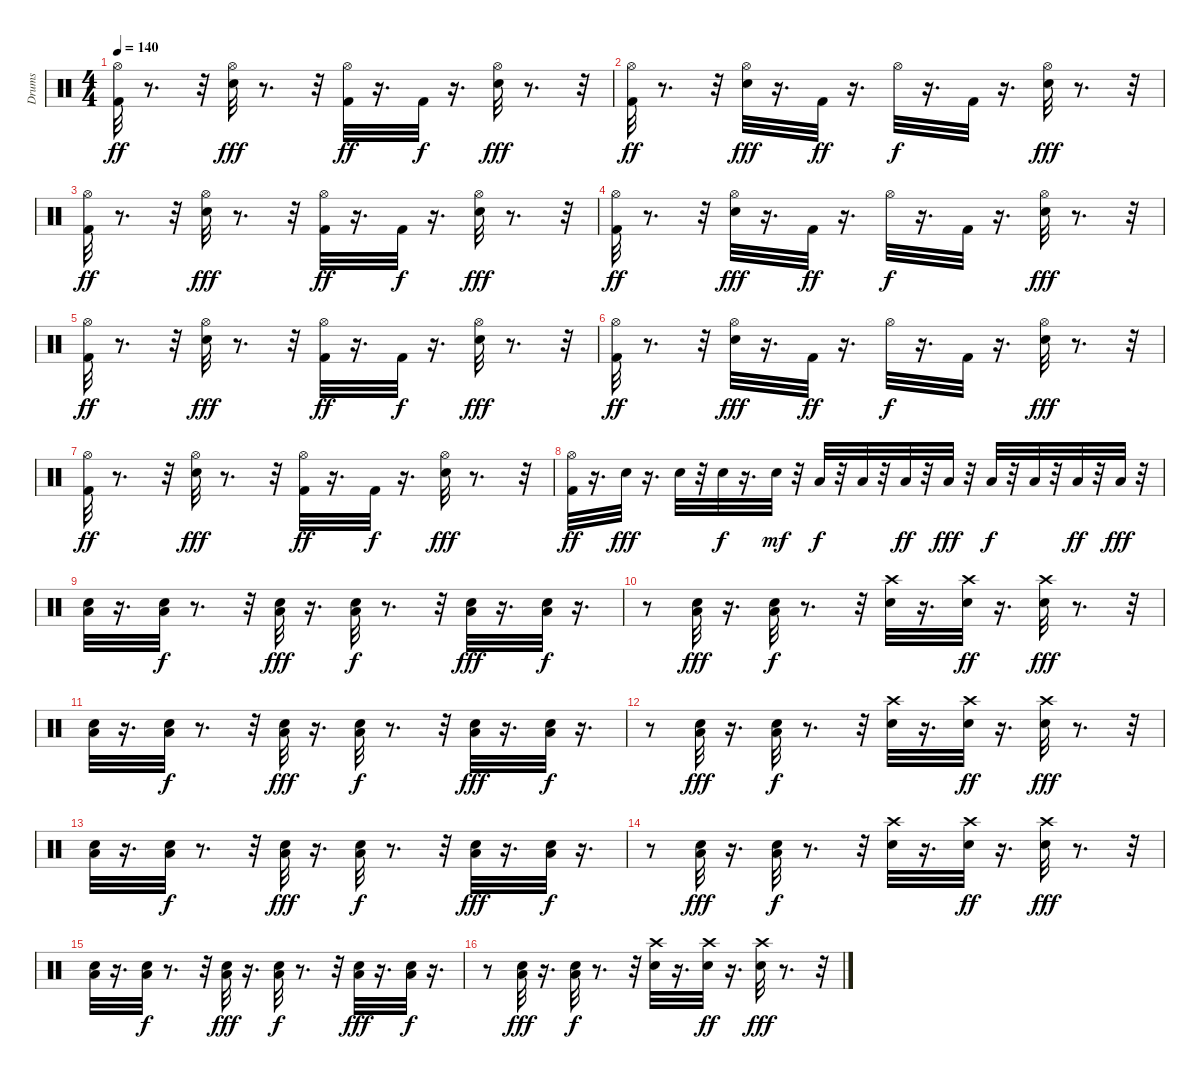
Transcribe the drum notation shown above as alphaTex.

\track ("Drums" "Drums") {instrument percussion}
\staff {score}
\articulation defaults
\ts (4 4)
\tempo 140
\clef neutral
\ks c
("Kick (hit) 2" "Hi-Hat (open)").32{dy ff} r.8{d} r.32 ("Snare (hit) 2" "Hi-Hat (open)").32{dy fff} r.8{d} r.32 ("Kick (hit) 2" "Hi-Hat (open)").32{dy ff} r.16{d} "Kick (hit) 2".32{dy f} r.16{d} ("Snare (hit) 2" "Hi-Hat (open)").32{dy fff} r.8{d} r.32 |
("Kick (hit) 2" "Hi-Hat (open)").32{dy ff} r.8{d} r.32 ("Snare (hit) 2" "Hi-Hat (open)").32{dy fff} r.16{d} "Kick (hit) 2".32{dy ff} r.16{d} "Hi-Hat (open)".32{dy f} r.16{d} "Kick (hit) 2".32 r.16{d} ("Snare (hit) 2" "Hi-Hat (open)").32{dy fff} r.8{d} r.32 |
("Kick (hit) 2" "Hi-Hat (open)").32{dy ff} r.8{d} r.32 ("Snare (hit) 2" "Hi-Hat (open)").32{dy fff} r.8{d} r.32 ("Kick (hit) 2" "Hi-Hat (open)").32{dy ff} r.16{d} "Kick (hit) 2".32{dy f} r.16{d} ("Snare (hit) 2" "Hi-Hat (open)").32{dy fff} r.8{d} r.32 |
("Kick (hit) 2" "Hi-Hat (open)").32{dy ff} r.8{d} r.32 ("Snare (hit) 2" "Hi-Hat (open)").32{dy fff} r.16{d} "Kick (hit) 2".32{dy ff} r.16{d} "Hi-Hat (open)".32{dy f} r.16{d} "Kick (hit) 2".32 r.16{d} ("Snare (hit) 2" "Hi-Hat (open)").32{dy fff} r.8{d} r.32 |
("Kick (hit) 2" "Hi-Hat (open)").32{dy ff} r.8{d} r.32 ("Snare (hit) 2" "Hi-Hat (open)").32{dy fff} r.8{d} r.32 ("Kick (hit) 2" "Hi-Hat (open)").32{dy ff} r.16{d} "Kick (hit) 2".32{dy f} r.16{d} ("Snare (hit) 2" "Hi-Hat (open)").32{dy fff} r.8{d} r.32 |
("Kick (hit) 2" "Hi-Hat (open)").32{dy ff} r.8{d} r.32 ("Snare (hit) 2" "Hi-Hat (open)").32{dy fff} r.16{d} "Kick (hit) 2".32{dy ff} r.16{d} "Hi-Hat (open)".32{dy f} r.16{d} "Kick (hit) 2".32 r.16{d} ("Snare (hit) 2" "Hi-Hat (open)").32{dy fff} r.8{d} r.32 |
("Kick (hit) 2" "Hi-Hat (open)").32{dy ff} r.8{d} r.32 ("Snare (hit) 2" "Hi-Hat (open)").32{dy fff} r.8{d} r.32 ("Kick (hit) 2" "Hi-Hat (open)").32{dy ff} r.16{d} "Kick (hit) 2".32{dy f} r.16{d} ("Snare (hit) 2" "Hi-Hat (open)").32{dy fff} r.8{d} r.32 |
("Kick (hit) 2" "Hi-Hat (open)").32{dy ff} r.16{d} "Snare (hit) 2".32{dy fff} r.16{d} "Snare (hit) 2".32 r.32 "Snare (hit) 2".32{dy f} r.16{d} "Snare (hit) 2".32{dy mf} r.32 "Low Tom (hit)".32{dy f} r.32 "Low Tom (hit)".32 r.32 "Low Tom (hit)".32{dy ff} r.32 "Low Tom (hit)".32{dy fff} r.32 "Low Floor Tom (hit)".32{dy f} r.32 "Low Floor Tom (hit)".32 r.32 "Low Floor Tom (hit)".32{dy ff} r.32 "Low Floor Tom (hit)".32{dy fff} r.32 |
("Low Floor Tom (hit)" "Snare (hit) 2").32 r.16{d} ("Low Floor Tom (hit)" "Snare (hit) 2").32{dy f} r.8{d} r.32 ("Low Floor Tom (hit)" "Snare (hit) 2").32{dy fff} r.16{d} ("Low Floor Tom (hit)" "Snare (hit) 2").32{dy f} r.8{d} r.32 ("Low Floor Tom (hit)" "Snare (hit) 2").32{dy fff} r.16{d} ("Low Floor Tom (hit)" "Snare (hit) 2").32{dy f} r.16{d} |
r.8 ("Low Floor Tom (hit)" "Snare (hit) 2").32{dy fff} r.16{d} ("Low Floor Tom (hit)" "Snare (hit) 2").32{dy f} r.8{d} r.32 ("Crash high (hit)" "Snare (hit) 2").32 r.16{d} ("Crash high (hit)" "Snare (hit) 2").32{dy ff} r.16{d} ("Crash high (hit)" "Snare (hit) 2").32{dy fff} r.8{d} r.32 |
("Low Floor Tom (hit)" "Snare (hit) 2").32 r.16{d} ("Low Floor Tom (hit)" "Snare (hit) 2").32{dy f} r.8{d} r.32 ("Low Floor Tom (hit)" "Snare (hit) 2").32{dy fff} r.16{d} ("Low Floor Tom (hit)" "Snare (hit) 2").32{dy f} r.8{d} r.32 ("Low Floor Tom (hit)" "Snare (hit) 2").32{dy fff} r.16{d} ("Low Floor Tom (hit)" "Snare (hit) 2").32{dy f} r.16{d} |
r.8 ("Low Floor Tom (hit)" "Snare (hit) 2").32{dy fff} r.16{d} ("Low Floor Tom (hit)" "Snare (hit) 2").32{dy f} r.8{d} r.32 ("Crash high (hit)" "Snare (hit) 2").32 r.16{d} ("Crash high (hit)" "Snare (hit) 2").32{dy ff} r.16{d} ("Crash high (hit)" "Snare (hit) 2").32{dy fff} r.8{d} r.32 |
("Low Floor Tom (hit)" "Snare (hit) 2").32 r.16{d} ("Low Floor Tom (hit)" "Snare (hit) 2").32{dy f} r.8{d} r.32 ("Low Floor Tom (hit)" "Snare (hit) 2").32{dy fff} r.16{d} ("Low Floor Tom (hit)" "Snare (hit) 2").32{dy f} r.8{d} r.32 ("Low Floor Tom (hit)" "Snare (hit) 2").32{dy fff} r.16{d} ("Low Floor Tom (hit)" "Snare (hit) 2").32{dy f} r.16{d} |
r.8 ("Low Floor Tom (hit)" "Snare (hit) 2").32{dy fff} r.16{d} ("Low Floor Tom (hit)" "Snare (hit) 2").32{dy f} r.8{d} r.32 ("Crash high (hit)" "Snare (hit) 2").32 r.16{d} ("Crash high (hit)" "Snare (hit) 2").32{dy ff} r.16{d} ("Crash high (hit)" "Snare (hit) 2").32{dy fff} r.8{d} r.32 |
("Low Floor Tom (hit)" "Snare (hit) 2").32 r.16{d} ("Low Floor Tom (hit)" "Snare (hit) 2").32{dy f} r.8{d} r.32 ("Low Floor Tom (hit)" "Snare (hit) 2").32{dy fff} r.16{d} ("Low Floor Tom (hit)" "Snare (hit) 2").32{dy f} r.8{d} r.32 ("Low Floor Tom (hit)" "Snare (hit) 2").32{dy fff} r.16{d} ("Low Floor Tom (hit)" "Snare (hit) 2").32{dy f} r.16{d} |
r.8 ("Low Floor Tom (hit)" "Snare (hit) 2").32{dy fff} r.16{d} ("Low Floor Tom (hit)" "Snare (hit) 2").32{dy f} r.8{d} r.32 ("Crash high (hit)" "Snare (hit) 2").32 r.16{d} ("Crash high (hit)" "Snare (hit) 2").32{dy ff} r.16{d} ("Crash high (hit)" "Snare (hit) 2").32{dy fff} r.8{d} r.32
